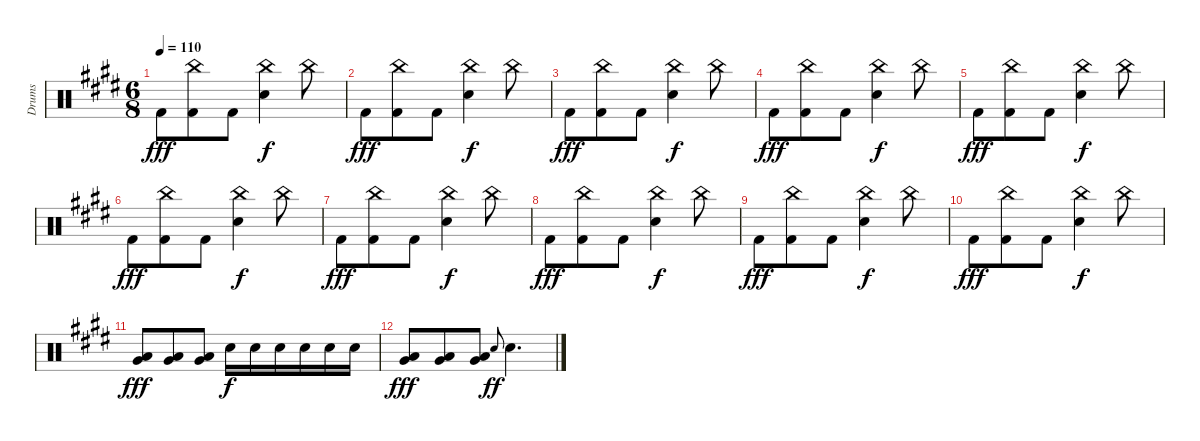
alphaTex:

\track ("Drums" "Drums") {instrument percussion}
\staff {score}
\articulation defaults
\ts (6 8)
\tempo 110
\clef neutral
\ks c#minor "Kick (hit) 2".8{dy fff}
("China (hit)" "Kick (hit) 2").8 "Kick (hit) 2".8 ("China (hit)" "Electric Snare (hit)").4{dy f} "China (hit)".8 |
"Kick (hit) 2".8{dy fff} ("China (hit)" "Kick (hit) 2").8 "Kick (hit) 2".8 ("China (hit)" "Electric Snare (hit)").4{dy f} "China (hit)".8 |
"Kick (hit) 2".8{dy fff} ("China (hit)" "Kick (hit) 2").8 "Kick (hit) 2".8 ("China (hit)" "Electric Snare (hit)").4{dy f} "China (hit)".8 |
"Kick (hit) 2".8{dy fff} ("China (hit)" "Kick (hit) 2").8 "Kick (hit) 2".8 ("China (hit)" "Electric Snare (hit)").4{dy f} "China (hit)".8 |
"Kick (hit) 2".8{dy fff} ("China (hit)" "Kick (hit) 2").8 "Kick (hit) 2".8 ("China (hit)" "Electric Snare (hit)").4{dy f} "China (hit)".8 |
"Kick (hit) 2".8{dy fff} ("China (hit)" "Kick (hit) 2").8 "Kick (hit) 2".8 ("China (hit)" "Electric Snare (hit)").4{dy f} "China (hit)".8 |
"Kick (hit) 2".8{dy fff} ("China (hit)" "Kick (hit) 2").8 "Kick (hit) 2".8 ("China (hit)" "Electric Snare (hit)").4{dy f} "China (hit)".8 |
"Kick (hit) 2".8{dy fff} ("China (hit)" "Kick (hit) 2").8 "Kick (hit) 2".8 ("China (hit)" "Electric Snare (hit)").4{dy f} "China (hit)".8 |
"Kick (hit) 2".8{dy fff} ("China (hit)" "Kick (hit) 2").8 "Kick (hit) 2".8 ("China (hit)" "Electric Snare (hit)").4{dy f} "China (hit)".8 |
"Kick (hit) 2".8{dy fff} ("China (hit)" "Kick (hit) 2").8 "Kick (hit) 2".8 ("China (hit)" "Electric Snare (hit)").4{dy f} "China (hit)".8 |
("Very Low Tom (hit)" "Low Floor Tom (hit)").8{dy fff} ("Very Low Tom (hit)" "Low Floor Tom (hit)").8 ("Very Low Tom (hit)" "Low Floor Tom (hit)").8 "Electric Snare (hit)".16{dy f} "Electric Snare (hit)".16 "Electric Snare (hit)".16 "Electric Snare (hit)".16 "Electric Snare (hit)".16 "Electric Snare (hit)".16 |
("Very Low Tom (hit)" "Low Floor Tom (hit)").8{dy fff} ("Very Low Tom (hit)" "Low Floor Tom (hit)").8 ("Very Low Tom (hit)" "Low Floor Tom (hit)").8 "Electric Snare (hit)".8{gr onbeat dy ff} "Electric Snare (hit)".4{d}
